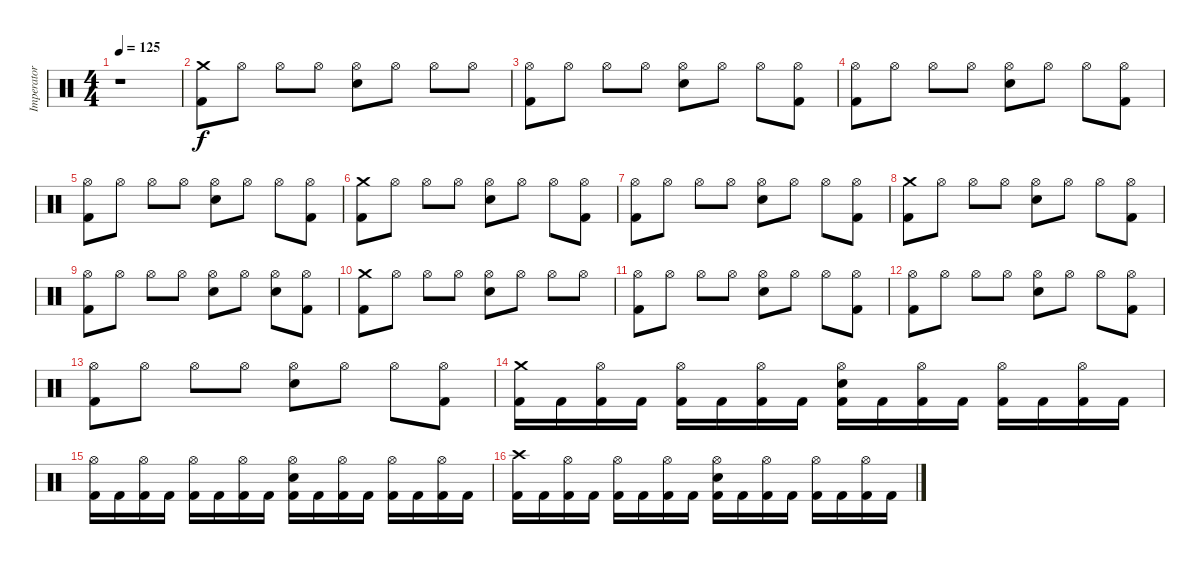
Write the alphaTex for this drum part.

\track ("Imperator" "Imperator") {instrument percussion}
\staff {score}
\articulation defaults
\ts (4 4)
\tempo 125
\clef neutral
\ks c
r.1{dy f} |
("Crash medium (hit)" "Kick (hit) 2").8 "Hi-Hat (open)".8 "Hi-Hat (open)".8 "Hi-Hat (open)".8 ("Hi-Hat (open)" "Snare (hit) 2").8 "Hi-Hat (open)".8 "Hi-Hat (open)".8 "Hi-Hat (open)".8 |
("Hi-Hat (open)" "Kick (hit) 2").8 "Hi-Hat (open)".8 "Hi-Hat (open)".8 "Hi-Hat (open)".8 ("Hi-Hat (open)" "Snare (hit) 2").8 "Hi-Hat (open)".8 "Hi-Hat (open)".8 ("Hi-Hat (open)" "Kick (hit) 2").8 |
("Hi-Hat (open)" "Kick (hit) 2").8 "Hi-Hat (open)".8 "Hi-Hat (open)".8 "Hi-Hat (open)".8 ("Hi-Hat (open)" "Snare (hit) 2").8 "Hi-Hat (open)".8 "Hi-Hat (open)".8 ("Hi-Hat (open)" "Kick (hit) 2").8 |
("Hi-Hat (open)" "Kick (hit) 2").8 "Hi-Hat (open)".8 "Hi-Hat (open)".8 "Hi-Hat (open)".8 ("Hi-Hat (open)" "Snare (hit) 2").8 "Hi-Hat (open)".8 "Hi-Hat (open)".8 ("Hi-Hat (open)" "Kick (hit) 2").8 |
("Crash medium (hit)" "Kick (hit) 2").8 "Hi-Hat (open)".8 "Hi-Hat (open)".8 "Hi-Hat (open)".8 ("Hi-Hat (open)" "Snare (hit) 2").8 "Hi-Hat (open)".8 "Hi-Hat (open)".8 ("Hi-Hat (open)" "Kick (hit) 2").8 |
("Hi-Hat (open)" "Kick (hit) 2").8 "Hi-Hat (open)".8 "Hi-Hat (open)".8 "Hi-Hat (open)".8 ("Hi-Hat (open)" "Snare (hit) 2").8 "Hi-Hat (open)".8 "Hi-Hat (open)".8 ("Hi-Hat (open)" "Kick (hit) 2").8 |
("Crash medium (hit)" "Kick (hit) 2").8 "Hi-Hat (open)".8 "Hi-Hat (open)".8 "Hi-Hat (open)".8 ("Hi-Hat (open)" "Snare (hit) 2").8 "Hi-Hat (open)".8 "Hi-Hat (open)".8 ("Hi-Hat (open)" "Kick (hit) 2").8 |
("Hi-Hat (open)" "Kick (hit) 2").8 "Hi-Hat (open)".8 "Hi-Hat (open)".8 "Hi-Hat (open)".8 ("Hi-Hat (open)" "Snare (hit) 2").8 "Hi-Hat (open)".8 ("Hi-Hat (open)" "Snare (hit) 2").8 ("Hi-Hat (open)" "Kick (hit) 2").8 |
("Crash medium (hit)" "Kick (hit) 2").8 "Hi-Hat (open)".8 "Hi-Hat (open)".8 "Hi-Hat (open)".8 ("Hi-Hat (open)" "Snare (hit) 2").8 "Hi-Hat (open)".8 "Hi-Hat (open)".8 "Hi-Hat (open)".8 |
("Hi-Hat (open)" "Kick (hit) 2").8 "Hi-Hat (open)".8 "Hi-Hat (open)".8 "Hi-Hat (open)".8 ("Hi-Hat (open)" "Snare (hit) 2").8 "Hi-Hat (open)".8 "Hi-Hat (open)".8 ("Hi-Hat (open)" "Kick (hit) 2").8 |
("Hi-Hat (open)" "Kick (hit) 2").8 "Hi-Hat (open)".8 "Hi-Hat (open)".8 "Hi-Hat (open)".8 ("Hi-Hat (open)" "Snare (hit) 2").8 "Hi-Hat (open)".8 "Hi-Hat (open)".8 ("Hi-Hat (open)" "Kick (hit) 2").8 |
("Hi-Hat (open)" "Kick (hit) 2").8 "Hi-Hat (open)".8 "Hi-Hat (open)".8 "Hi-Hat (open)".8 ("Hi-Hat (open)" "Snare (hit) 2").8 "Hi-Hat (open)".8 "Hi-Hat (open)".8 ("Hi-Hat (open)" "Kick (hit) 2").8 |
("Crash medium (hit)" "Kick (hit) 2").16 "Kick (hit) 2".16 ("Hi-Hat (open)" "Kick (hit) 2").16 "Kick (hit) 2".16 ("Hi-Hat (open)" "Kick (hit) 2").16 "Kick (hit) 2".16 ("Hi-Hat (open)" "Kick (hit) 2").16 "Kick (hit) 2".16 ("Hi-Hat (open)" "Snare (hit) 2" "Kick (hit) 2").16 "Kick (hit) 2".16 ("Hi-Hat (open)" "Kick (hit) 2").16 "Kick (hit) 2".16 ("Hi-Hat (open)" "Kick (hit) 2").16 "Kick (hit) 2".16 ("Hi-Hat (open)" "Kick (hit) 2").16 "Kick (hit) 2".16 |
("Hi-Hat (open)" "Kick (hit) 2").16 "Kick (hit) 2".16 ("Hi-Hat (open)" "Kick (hit) 2").16 "Kick (hit) 2".16 ("Hi-Hat (open)" "Kick (hit) 2").16 "Kick (hit) 2".16 ("Hi-Hat (open)" "Kick (hit) 2").16 "Kick (hit) 2".16 ("Hi-Hat (open)" "Snare (hit) 2" "Kick (hit) 2").16 "Kick (hit) 2".16 ("Hi-Hat (open)" "Kick (hit) 2").16 "Kick (hit) 2".16 ("Hi-Hat (open)" "Kick (hit) 2").16 "Kick (hit) 2".16 ("Hi-Hat (open)" "Kick (hit) 2").16 "Kick (hit) 2".16 |
("Crash high (hit)" "Kick (hit) 2").16 "Kick (hit) 2".16 ("Hi-Hat (open)" "Kick (hit) 2").16 "Kick (hit) 2".16 ("Hi-Hat (open)" "Kick (hit) 2").16 "Kick (hit) 2".16 ("Hi-Hat (open)" "Kick (hit) 2").16 "Kick (hit) 2".16 ("Hi-Hat (open)" "Snare (hit) 2" "Kick (hit) 2").16 "Kick (hit) 2".16 ("Hi-Hat (open)" "Kick (hit) 2").16 "Kick (hit) 2".16 ("Hi-Hat (open)" "Kick (hit) 2").16 "Kick (hit) 2".16 ("Hi-Hat (open)" "Kick (hit) 2").16 "Kick (hit) 2".16
